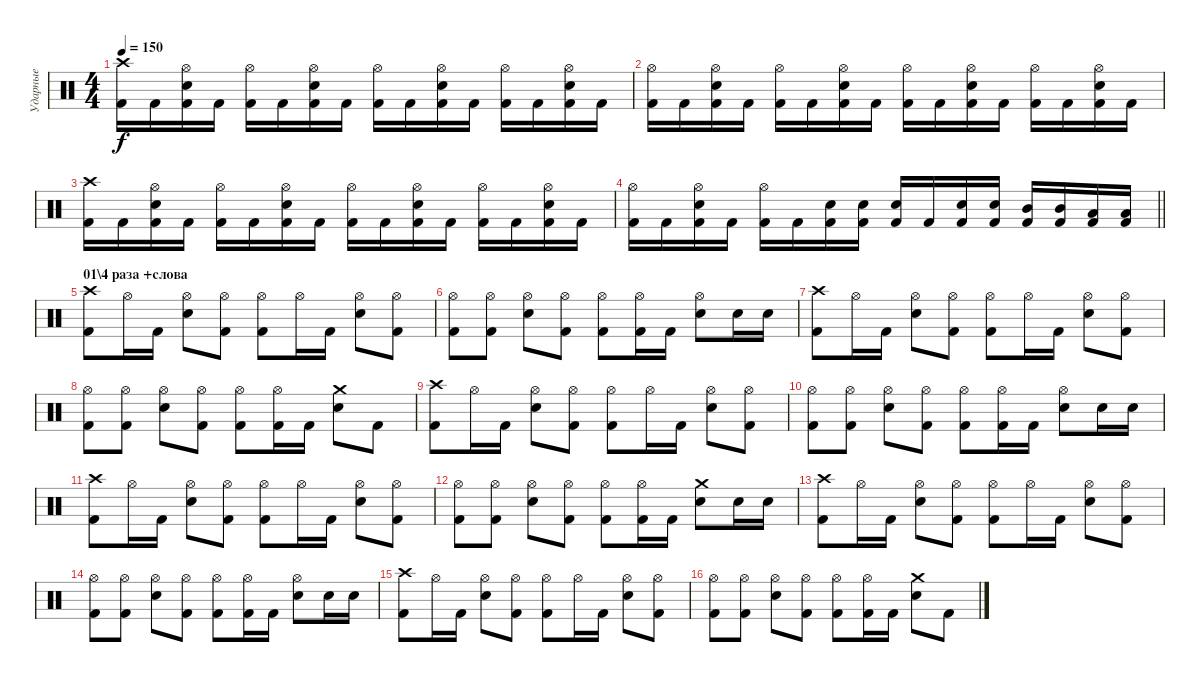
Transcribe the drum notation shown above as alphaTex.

\track ("Ударные" "Ударные") {instrument percussion}
\staff {score}
\articulation defaults
\ts (4 4)
\tempo 150
\clef neutral
\ks c
("Crash high (hit)" "Kick (hit) 2").16{dy f} "Kick (hit) 2".16 ("Hi-Hat (open)" "Electric Snare (hit)" "Kick (hit) 2").16 "Kick (hit) 2".16 ("Hi-Hat (open)" "Kick (hit) 2").16 "Kick (hit) 2".16 ("Hi-Hat (open)" "Electric Snare (hit)" "Kick (hit) 2").16 "Kick (hit) 2".16 ("Hi-Hat (open)" "Kick (hit) 2").16 "Kick (hit) 2".16 ("Hi-Hat (open)" "Electric Snare (hit)" "Kick (hit) 2").16 "Kick (hit) 2".16 ("Hi-Hat (open)" "Kick (hit) 2").16 "Kick (hit) 2".16 ("Hi-Hat (open)" "Electric Snare (hit)" "Kick (hit) 2").16 "Kick (hit) 2".16 |
("Hi-Hat (open)" "Kick (hit) 2").16 "Kick (hit) 2".16 ("Hi-Hat (open)" "Electric Snare (hit)" "Kick (hit) 2").16 "Kick (hit) 2".16 ("Hi-Hat (open)" "Kick (hit) 2").16 "Kick (hit) 2".16 ("Hi-Hat (open)" "Electric Snare (hit)" "Kick (hit) 2").16 "Kick (hit) 2".16 ("Hi-Hat (open)" "Kick (hit) 2").16 "Kick (hit) 2".16 ("Hi-Hat (open)" "Electric Snare (hit)" "Kick (hit) 2").16 "Kick (hit) 2".16 ("Hi-Hat (open)" "Kick (hit) 2").16 "Kick (hit) 2".16 ("Hi-Hat (open)" "Electric Snare (hit)" "Kick (hit) 2").16 "Kick (hit) 2".16 |
("Crash high (hit)" "Kick (hit) 2").16 "Kick (hit) 2".16 ("Hi-Hat (open)" "Electric Snare (hit)" "Kick (hit) 2").16 "Kick (hit) 2".16 ("Hi-Hat (open)" "Kick (hit) 2").16 "Kick (hit) 2".16 ("Hi-Hat (open)" "Electric Snare (hit)" "Kick (hit) 2").16 "Kick (hit) 2".16 ("Hi-Hat (open)" "Kick (hit) 2").16 "Kick (hit) 2".16 ("Hi-Hat (open)" "Electric Snare (hit)" "Kick (hit) 2").16 "Kick (hit) 2".16 ("Hi-Hat (open)" "Kick (hit) 2").16 "Kick (hit) 2".16 ("Hi-Hat (open)" "Electric Snare (hit)" "Kick (hit) 2").16 "Kick (hit) 2".16 |
\barLineRight lightlight
("Hi-Hat (open)" "Kick (hit) 2").16 "Kick (hit) 2".16 ("Hi-Hat (open)" "Electric Snare (hit)" "Kick (hit) 2").16 "Kick (hit) 2".16 ("Hi-Hat (open)" "Kick (hit) 2").16 "Kick (hit) 2".16 ("Electric Snare (hit)" "Kick (hit) 2").16 ("Electric Snare (hit)" "Kick (hit) 2").16 ("Electric Snare (hit)" "Kick (hit) 2").16 "Kick (hit) 2".16 ("Electric Snare (hit)" "Kick (hit) 2").16 ("Electric Snare (hit)" "Kick (hit) 2").16 ("Mid Tom (hit)" "Kick (hit) 2").16 ("Mid Tom (hit)" "Kick (hit) 2").16 ("Low Tom (hit)" "Kick (hit) 2").16 ("Low Tom (hit)" "Kick (hit) 2").16 |
\section ("" "01\\4 раза +слова")
("Crash high (hit)" "Kick (hit) 2").8 "Hi-Hat (open)".16 "Kick (hit) 2".16 ("Hi-Hat (open)" "Electric Snare (hit)").8 ("Hi-Hat (open)" "Kick (hit) 2").8 ("Hi-Hat (open)" "Kick (hit) 2").8 "Hi-Hat (open)".16 "Kick (hit) 2".16 ("Hi-Hat (open)" "Electric Snare (hit)").8 ("Hi-Hat (open)" "Kick (hit) 2").8 |
("Hi-Hat (open)" "Kick (hit) 2").8 ("Hi-Hat (open)" "Kick (hit) 2").8 ("Hi-Hat (open)" "Electric Snare (hit)").8 ("Hi-Hat (open)" "Kick (hit) 2").8 ("Hi-Hat (open)" "Kick (hit) 2").8 ("Hi-Hat (open)" "Kick (hit) 2").16 "Kick (hit) 2".16 ("Hi-Hat (open)" "Electric Snare (hit)").8 "Electric Snare (hit)".16 "Electric Snare (hit)".16 |
("Crash high (hit)" "Kick (hit) 2").8 "Hi-Hat (open)".16 "Kick (hit) 2".16 ("Hi-Hat (open)" "Electric Snare (hit)").8 ("Hi-Hat (open)" "Kick (hit) 2").8 ("Hi-Hat (open)" "Kick (hit) 2").8 "Hi-Hat (open)".16 "Kick (hit) 2".16 ("Hi-Hat (open)" "Electric Snare (hit)").8 ("Hi-Hat (open)" "Kick (hit) 2").8 |
("Hi-Hat (open)" "Kick (hit) 2").8 ("Hi-Hat (open)" "Kick (hit) 2").8 ("Hi-Hat (open)" "Electric Snare (hit)").8 ("Hi-Hat (open)" "Kick (hit) 2").8 ("Hi-Hat (open)" "Kick (hit) 2").8 ("Hi-Hat (open)" "Kick (hit) 2").16 "Kick (hit) 2".16 ("Crash medium (hit)" "Electric Snare (hit)").8 "Kick (hit) 2".8 |
("Crash high (hit)" "Kick (hit) 2").8 "Hi-Hat (open)".16 "Kick (hit) 2".16 ("Hi-Hat (open)" "Electric Snare (hit)").8 ("Hi-Hat (open)" "Kick (hit) 2").8 ("Hi-Hat (open)" "Kick (hit) 2").8 "Hi-Hat (open)".16 "Kick (hit) 2".16 ("Hi-Hat (open)" "Electric Snare (hit)").8 ("Hi-Hat (open)" "Kick (hit) 2").8 |
("Hi-Hat (open)" "Kick (hit) 2").8 ("Hi-Hat (open)" "Kick (hit) 2").8 ("Hi-Hat (open)" "Electric Snare (hit)").8 ("Hi-Hat (open)" "Kick (hit) 2").8 ("Hi-Hat (open)" "Kick (hit) 2").8 ("Hi-Hat (open)" "Kick (hit) 2").16 "Kick (hit) 2".16 ("Hi-Hat (open)" "Electric Snare (hit)").8 "Electric Snare (hit)".16 "Electric Snare (hit)".16 |
("Crash high (hit)" "Kick (hit) 2").8 "Hi-Hat (open)".16 "Kick (hit) 2".16 ("Hi-Hat (open)" "Electric Snare (hit)").8 ("Hi-Hat (open)" "Kick (hit) 2").8 ("Hi-Hat (open)" "Kick (hit) 2").8 "Hi-Hat (open)".16 "Kick (hit) 2".16 ("Hi-Hat (open)" "Electric Snare (hit)").8 ("Hi-Hat (open)" "Kick (hit) 2").8 |
("Hi-Hat (open)" "Kick (hit) 2").8 ("Hi-Hat (open)" "Kick (hit) 2").8 ("Hi-Hat (open)" "Electric Snare (hit)").8 ("Hi-Hat (open)" "Kick (hit) 2").8 ("Hi-Hat (open)" "Kick (hit) 2").8 ("Hi-Hat (open)" "Kick (hit) 2").16 "Kick (hit) 2".16 ("Crash medium (hit)" "Electric Snare (hit)").8 "Electric Snare (hit)".16 "Electric Snare (hit)".16 |
("Crash high (hit)" "Kick (hit) 2").8 "Hi-Hat (open)".16 "Kick (hit) 2".16 ("Hi-Hat (open)" "Electric Snare (hit)").8 ("Hi-Hat (open)" "Kick (hit) 2").8 ("Hi-Hat (open)" "Kick (hit) 2").8 "Hi-Hat (open)".16 "Kick (hit) 2".16 ("Hi-Hat (open)" "Electric Snare (hit)").8 ("Hi-Hat (open)" "Kick (hit) 2").8 |
("Hi-Hat (open)" "Kick (hit) 2").8 ("Hi-Hat (open)" "Kick (hit) 2").8 ("Hi-Hat (open)" "Electric Snare (hit)").8 ("Hi-Hat (open)" "Kick (hit) 2").8 ("Hi-Hat (open)" "Kick (hit) 2").8 ("Hi-Hat (open)" "Kick (hit) 2").16 "Kick (hit) 2".16 ("Hi-Hat (open)" "Electric Snare (hit)").8 "Electric Snare (hit)".16 "Electric Snare (hit)".16 |
("Crash high (hit)" "Kick (hit) 2").8 "Hi-Hat (open)".16 "Kick (hit) 2".16 ("Hi-Hat (open)" "Electric Snare (hit)").8 ("Hi-Hat (open)" "Kick (hit) 2").8 ("Hi-Hat (open)" "Kick (hit) 2").8 "Hi-Hat (open)".16 "Kick (hit) 2".16 ("Hi-Hat (open)" "Electric Snare (hit)").8 ("Hi-Hat (open)" "Kick (hit) 2").8 |
("Hi-Hat (open)" "Kick (hit) 2").8 ("Hi-Hat (open)" "Kick (hit) 2").8 ("Hi-Hat (open)" "Electric Snare (hit)").8 ("Hi-Hat (open)" "Kick (hit) 2").8 ("Hi-Hat (open)" "Kick (hit) 2").8 ("Hi-Hat (open)" "Kick (hit) 2").16 "Kick (hit) 2".16 ("Crash medium (hit)" "Electric Snare (hit)").8 "Kick (hit) 2".8
